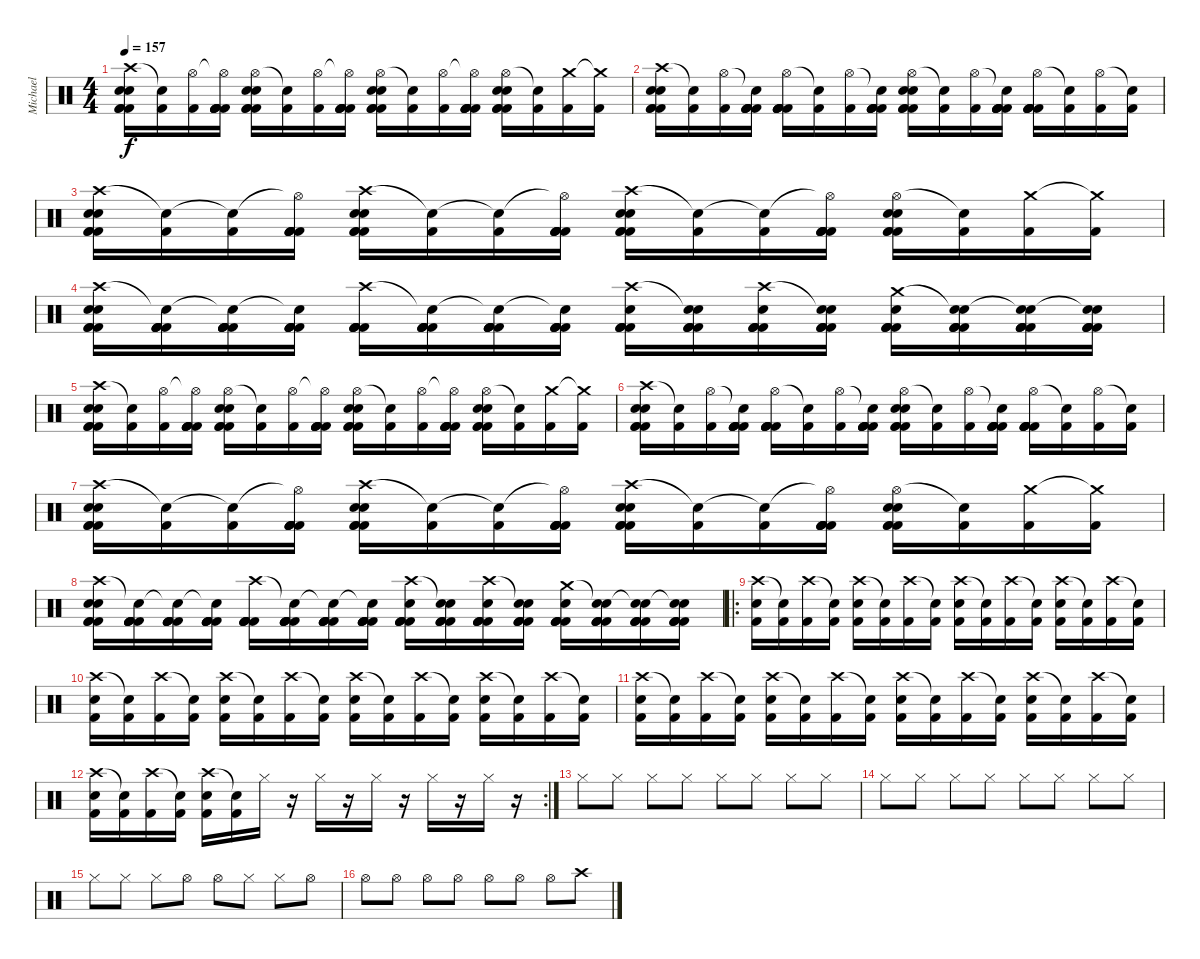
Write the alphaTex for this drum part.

\track ("Michael" "Michael") {instrument percussion}
\staff {score}
\articulation defaults
\ts (4 4)
\tempo 157
\clef neutral
\ks c
("Crash high (hit)" "Kick (hit) 2" "Kick (hit) 2" "Electric Snare (hit)" "Electric Snare (hit)" "Kick (hit) 2").16{dy f} ("Snare (hit)"{t} "Kick (hit) 2").16 ("Hi-Hat (open)" "Kick (hit) 2").16 ("Hi-Hat (open)"{t} "Kick (hit) 2" "Kick (hit) 2" "Kick (hit) 2" "Kick (hit) 2" "Kick (hit) 2").16 ("Hi-Hat (open)" "Kick (hit) 2" "Kick (hit) 2" "Electric Snare (hit)" "Electric Snare (hit)" "Kick (hit) 2").16 ("Snare (hit)"{t} "Kick (hit) 2").16 ("Hi-Hat (open)" "Kick (hit) 2").16 ("Hi-Hat (open)"{t} "Kick (hit) 2" "Kick (hit) 2" "Kick (hit) 2" "Kick (hit) 2" "Kick (hit) 2").16 ("Hi-Hat (open)" "Kick (hit) 2" "Kick (hit) 2" "Electric Snare (hit)" "Electric Snare (hit)" "Kick (hit) 2").16 ("Snare (hit)"{t} "Kick (hit) 2").16 ("Hi-Hat (open)" "Kick (hit) 2").16 ("Hi-Hat (open)"{t} "Kick (hit) 2" "Kick (hit) 2" "Kick (hit) 2" "Kick (hit) 2" "Kick (hit) 2").16 ("Hi-Hat (open)" "Kick (hit) 2" "Kick (hit) 2" "Electric Snare (hit)" "Electric Snare (hit)" "Kick (hit) 2").16 ("Snare (hit)"{t} "Kick (hit) 2").16 ("Crash medium (hit)" "Kick (hit) 2").16 ("Crash medium (hit)"{t} "Kick (hit) 2").16 |
("Crash high (hit)" "Kick (hit) 2" "Kick (hit) 2" "Electric Snare (hit)" "Electric Snare (hit)" "Kick (hit) 2").16 ("Snare (hit)"{t} "Kick (hit) 2").16 ("Hi-Hat (open)" "Kick (hit) 2").16 ("Snare (hit)"{t} "Kick (hit) 2" "Kick (hit) 2" "Kick (hit) 2" "Kick (hit) 2" "Kick (hit) 2").16 ("Hi-Hat (open)" "Kick (hit) 2" "Kick (hit) 2" "Kick (hit) 2" "Kick (hit) 2" "Kick (hit) 2").16 ("Snare (hit)"{t} "Kick (hit) 2").16 ("Hi-Hat (open)" "Kick (hit) 2").16 ("Snare (hit)"{t} "Kick (hit) 2" "Kick (hit) 2" "Kick (hit) 2" "Kick (hit) 2" "Kick (hit) 2").16 ("Hi-Hat (open)" "Kick (hit) 2" "Kick (hit) 2" "Electric Snare (hit)" "Electric Snare (hit)" "Kick (hit) 2").16 ("Snare (hit)"{t} "Kick (hit) 2").16 ("Hi-Hat (open)" "Kick (hit) 2").16 ("Snare (hit)"{t} "Kick (hit) 2" "Kick (hit) 2" "Kick (hit) 2" "Kick (hit) 2" "Kick (hit) 2").16 ("Hi-Hat (open)" "Kick (hit) 2" "Kick (hit) 2" "Kick (hit) 2" "Kick (hit) 2" "Kick (hit) 2").16 ("Snare (hit)"{t} "Kick (hit) 2").16 ("Hi-Hat (open)" "Kick (hit) 2").16 ("Snare (hit)"{t} "Kick (hit) 2").16 |
("Crash high (hit)" "Kick (hit) 2" "Kick (hit) 2" "Electric Snare (hit)" "Electric Snare (hit)" "Kick (hit) 2").16 ("Snare (hit)"{t} "Kick (hit) 2").16 ("Snare (hit)"{t} "Kick (hit) 2").16 ("Hi-Hat (open)"{t} "Kick (hit) 2" "Kick (hit) 2" "Kick (hit) 2" "Kick (hit) 2" "Kick (hit) 2").16 ("Crash high (hit)" "Kick (hit) 2" "Kick (hit) 2" "Electric Snare (hit)" "Electric Snare (hit)" "Kick (hit) 2").16 ("Snare (hit)"{t} "Kick (hit) 2").16 ("Snare (hit)"{t} "Kick (hit) 2").16 ("Hi-Hat (open)"{t} "Kick (hit) 2" "Kick (hit) 2" "Kick (hit) 2" "Kick (hit) 2" "Kick (hit) 2").16 ("Crash high (hit)" "Kick (hit) 2" "Kick (hit) 2" "Electric Snare (hit)" "Electric Snare (hit)" "Kick (hit) 2").16 ("Snare (hit)"{t} "Kick (hit) 2").16 ("Snare (hit)"{t} "Kick (hit) 2").16 ("Hi-Hat (open)"{t} "Kick (hit) 2" "Kick (hit) 2" "Kick (hit) 2" "Kick (hit) 2" "Kick (hit) 2").16 ("Hi-Hat (open)" "Kick (hit) 2" "Kick (hit) 2" "Electric Snare (hit)" "Electric Snare (hit)" "Kick (hit) 2").16 ("Snare (hit)"{t} "Kick (hit) 2").16 ("Crash medium (hit)" "Kick (hit) 2").16 ("Crash medium (hit)"{t} "Kick (hit) 2").16 |
("Crash high (hit)" "Kick (hit) 2" "Kick (hit) 2" "Electric Snare (hit)" "Electric Snare (hit)" "Kick (hit) 2").16 ("Snare (hit)"{t} "Kick (hit) 2" "Kick (hit) 2" "Kick (hit) 2" "Kick (hit) 2" "Kick (hit) 2").16 ("Snare (hit)"{t} "Kick (hit) 2" "Kick (hit) 2" "Kick (hit) 2" "Kick (hit) 2" "Kick (hit) 2").16 ("Snare (hit)"{t} "Kick (hit) 2" "Kick (hit) 2" "Kick (hit) 2" "Kick (hit) 2" "Kick (hit) 2").16 ("Crash high (hit)" "Kick (hit) 2" "Kick (hit) 2" "Kick (hit) 2" "Kick (hit) 2" "Kick (hit) 2").16 ("Snare (hit)"{t} "Kick (hit) 2" "Kick (hit) 2" "Kick (hit) 2" "Kick (hit) 2" "Kick (hit) 2").16 ("Snare (hit)"{t} "Kick (hit) 2" "Kick (hit) 2" "Kick (hit) 2" "Kick (hit) 2" "Kick (hit) 2").16 ("Snare (hit)"{t} "Kick (hit) 2" "Kick (hit) 2" "Kick (hit) 2" "Kick (hit) 2" "Kick (hit) 2").16 ("Crash high (hit)" "Kick (hit) 2" "Kick (hit) 2" "Kick (hit) 2" "Kick (hit) 2" "Electric Snare (hit)").16 ("Snare (hit)"{t} "Kick (hit) 2" "Kick (hit) 2" "Kick (hit) 2" "Kick (hit) 2" "Electric Snare (hit)").16 ("Crash high (hit)" "Kick (hit) 2" "Kick (hit) 2" "Kick (hit) 2" "Kick (hit) 2" "Electric Snare (hit)").16 ("Snare (hit)"{t} "Kick (hit) 2" "Kick (hit) 2" "Kick (hit) 2" "Kick (hit) 2" "Electric Snare (hit)").16 ("Crash medium (hit)" "Kick (hit) 2" "Kick (hit) 2" "Kick (hit) 2" "Kick (hit) 2" "Electric Snare (hit)").16 ("Snare (hit)"{t} "Kick (hit) 2" "Kick (hit) 2" "Kick (hit) 2" "Kick (hit) 2" "Electric Snare (hit)").16 ("Snare (hit)"{t} "Kick (hit) 2" "Kick (hit) 2" "Kick (hit) 2" "Kick (hit) 2" "Electric Snare (hit)").16 ("Snare (hit)"{t} "Kick (hit) 2" "Kick (hit) 2" "Kick (hit) 2" "Kick (hit) 2" "Electric Snare (hit)").16 |
("Crash high (hit)" "Kick (hit) 2" "Kick (hit) 2" "Electric Snare (hit)" "Electric Snare (hit)" "Kick (hit) 2").16 ("Snare (hit)"{t} "Kick (hit) 2").16 ("Hi-Hat (open)" "Kick (hit) 2").16 ("Hi-Hat (open)"{t} "Kick (hit) 2" "Kick (hit) 2" "Kick (hit) 2" "Kick (hit) 2" "Kick (hit) 2").16 ("Hi-Hat (open)" "Kick (hit) 2" "Kick (hit) 2" "Electric Snare (hit)" "Electric Snare (hit)" "Kick (hit) 2").16 ("Snare (hit)"{t} "Kick (hit) 2").16 ("Hi-Hat (open)" "Kick (hit) 2").16 ("Hi-Hat (open)"{t} "Kick (hit) 2" "Kick (hit) 2" "Kick (hit) 2" "Kick (hit) 2" "Kick (hit) 2").16 ("Hi-Hat (open)" "Kick (hit) 2" "Kick (hit) 2" "Electric Snare (hit)" "Electric Snare (hit)" "Kick (hit) 2").16 ("Snare (hit)"{t} "Kick (hit) 2").16 ("Hi-Hat (open)" "Kick (hit) 2").16 ("Hi-Hat (open)"{t} "Kick (hit) 2" "Kick (hit) 2" "Kick (hit) 2" "Kick (hit) 2" "Kick (hit) 2").16 ("Hi-Hat (open)" "Kick (hit) 2" "Kick (hit) 2" "Electric Snare (hit)" "Electric Snare (hit)" "Kick (hit) 2").16 ("Snare (hit)"{t} "Kick (hit) 2").16 ("Crash medium (hit)" "Kick (hit) 2").16 ("Crash medium (hit)"{t} "Kick (hit) 2").16 |
("Crash high (hit)" "Kick (hit) 2" "Kick (hit) 2" "Electric Snare (hit)" "Electric Snare (hit)" "Kick (hit) 2").16 ("Snare (hit)"{t} "Kick (hit) 2").16 ("Hi-Hat (open)" "Kick (hit) 2").16 ("Snare (hit)"{t} "Kick (hit) 2" "Kick (hit) 2" "Kick (hit) 2" "Kick (hit) 2" "Kick (hit) 2").16 ("Hi-Hat (open)" "Kick (hit) 2" "Kick (hit) 2" "Kick (hit) 2" "Kick (hit) 2" "Kick (hit) 2").16 ("Snare (hit)"{t} "Kick (hit) 2").16 ("Hi-Hat (open)" "Kick (hit) 2").16 ("Snare (hit)"{t} "Kick (hit) 2" "Kick (hit) 2" "Kick (hit) 2" "Kick (hit) 2" "Kick (hit) 2").16 ("Hi-Hat (open)" "Kick (hit) 2" "Kick (hit) 2" "Electric Snare (hit)" "Electric Snare (hit)" "Kick (hit) 2").16 ("Snare (hit)"{t} "Kick (hit) 2").16 ("Hi-Hat (open)" "Kick (hit) 2").16 ("Snare (hit)"{t} "Kick (hit) 2" "Kick (hit) 2" "Kick (hit) 2" "Kick (hit) 2" "Kick (hit) 2").16 ("Hi-Hat (open)" "Kick (hit) 2" "Kick (hit) 2" "Kick (hit) 2" "Kick (hit) 2" "Kick (hit) 2").16 ("Snare (hit)"{t} "Kick (hit) 2").16 ("Hi-Hat (open)" "Kick (hit) 2").16 ("Snare (hit)"{t} "Kick (hit) 2").16 |
("Crash high (hit)" "Kick (hit) 2" "Kick (hit) 2" "Electric Snare (hit)" "Electric Snare (hit)" "Kick (hit) 2").16 ("Snare (hit)"{t} "Kick (hit) 2").16 ("Snare (hit)"{t} "Kick (hit) 2").16 ("Hi-Hat (open)"{t} "Kick (hit) 2" "Kick (hit) 2" "Kick (hit) 2" "Kick (hit) 2" "Kick (hit) 2").16 ("Crash high (hit)" "Kick (hit) 2" "Kick (hit) 2" "Electric Snare (hit)" "Electric Snare (hit)" "Kick (hit) 2").16 ("Snare (hit)"{t} "Kick (hit) 2").16 ("Snare (hit)"{t} "Kick (hit) 2").16 ("Hi-Hat (open)"{t} "Kick (hit) 2" "Kick (hit) 2" "Kick (hit) 2" "Kick (hit) 2" "Kick (hit) 2").16 ("Crash high (hit)" "Kick (hit) 2" "Kick (hit) 2" "Electric Snare (hit)" "Electric Snare (hit)" "Kick (hit) 2").16 ("Snare (hit)"{t} "Kick (hit) 2").16 ("Snare (hit)"{t} "Kick (hit) 2").16 ("Hi-Hat (open)"{t} "Kick (hit) 2" "Kick (hit) 2" "Kick (hit) 2" "Kick (hit) 2" "Kick (hit) 2").16 ("Hi-Hat (open)" "Kick (hit) 2" "Kick (hit) 2" "Electric Snare (hit)" "Electric Snare (hit)" "Kick (hit) 2").16 ("Snare (hit)"{t} "Kick (hit) 2").16 ("Crash medium (hit)" "Kick (hit) 2").16 ("Crash medium (hit)"{t} "Kick (hit) 2").16 |
("Crash high (hit)" "Kick (hit) 2" "Kick (hit) 2" "Electric Snare (hit)" "Electric Snare (hit)" "Kick (hit) 2").16 ("Snare (hit)"{t} "Kick (hit) 2" "Kick (hit) 2" "Kick (hit) 2" "Kick (hit) 2" "Kick (hit) 2").16 ("Snare (hit)"{t} "Kick (hit) 2" "Kick (hit) 2" "Kick (hit) 2" "Kick (hit) 2" "Kick (hit) 2").16 ("Snare (hit)"{t} "Kick (hit) 2" "Kick (hit) 2" "Kick (hit) 2" "Kick (hit) 2" "Kick (hit) 2").16 ("Crash high (hit)" "Kick (hit) 2" "Kick (hit) 2" "Kick (hit) 2" "Kick (hit) 2" "Kick (hit) 2").16 ("Snare (hit)"{t} "Kick (hit) 2" "Kick (hit) 2" "Kick (hit) 2" "Kick (hit) 2" "Kick (hit) 2").16 ("Snare (hit)"{t} "Kick (hit) 2" "Kick (hit) 2" "Kick (hit) 2" "Kick (hit) 2" "Kick (hit) 2").16 ("Snare (hit)"{t} "Kick (hit) 2" "Kick (hit) 2" "Kick (hit) 2" "Kick (hit) 2" "Kick (hit) 2").16 ("Crash high (hit)" "Kick (hit) 2" "Kick (hit) 2" "Kick (hit) 2" "Kick (hit) 2" "Electric Snare (hit)").16 ("Snare (hit)"{t} "Kick (hit) 2" "Kick (hit) 2" "Kick (hit) 2" "Kick (hit) 2" "Electric Snare (hit)").16 ("Crash high (hit)" "Kick (hit) 2" "Kick (hit) 2" "Kick (hit) 2" "Kick (hit) 2" "Electric Snare (hit)").16 ("Snare (hit)"{t} "Kick (hit) 2" "Kick (hit) 2" "Kick (hit) 2" "Kick (hit) 2" "Electric Snare (hit)").16 ("Crash medium (hit)" "Kick (hit) 2" "Kick (hit) 2" "Kick (hit) 2" "Kick (hit) 2" "Electric Snare (hit)").16 ("Snare (hit)"{t} "Kick (hit) 2" "Kick (hit) 2" "Kick (hit) 2" "Kick (hit) 2" "Electric Snare (hit)").16 ("Snare (hit)"{t} "Kick (hit) 2" "Kick (hit) 2" "Kick (hit) 2" "Kick (hit) 2" "Electric Snare (hit)").16 ("Snare (hit)"{t} "Kick (hit) 2" "Kick (hit) 2" "Kick (hit) 2" "Kick (hit) 2" "Electric Snare (hit)").16 |
\ro
("Crash high (hit)" "Electric Snare (hit)" "Kick (hit) 2").16 ("Snare (hit)"{t} "Kick (hit) 2").16 ("Crash high (hit)" "Kick (hit) 2").16 ("Snare (hit)"{t} "Kick (hit) 2").16 ("Crash high (hit)" "Electric Snare (hit)" "Kick (hit) 2").16 ("Snare (hit)"{t} "Kick (hit) 2").16 ("Crash high (hit)" "Kick (hit) 2").16 ("Snare (hit)"{t} "Kick (hit) 2").16 ("Crash high (hit)" "Electric Snare (hit)" "Kick (hit) 2").16 ("Snare (hit)"{t} "Kick (hit) 2").16 ("Crash high (hit)" "Kick (hit) 2").16 ("Snare (hit)"{t} "Kick (hit) 2").16 ("Crash high (hit)" "Electric Snare (hit)" "Kick (hit) 2").16 ("Snare (hit)"{t} "Kick (hit) 2").16 ("Crash high (hit)" "Kick (hit) 2").16 ("Snare (hit)"{t} "Kick (hit) 2").16 |
("Crash high (hit)" "Electric Snare (hit)" "Kick (hit) 2").16 ("Snare (hit)"{t} "Kick (hit) 2").16 ("Crash high (hit)" "Kick (hit) 2").16 ("Snare (hit)"{t} "Kick (hit) 2").16 ("Crash high (hit)" "Electric Snare (hit)" "Kick (hit) 2").16 ("Snare (hit)"{t} "Kick (hit) 2").16 ("Crash high (hit)" "Kick (hit) 2").16 ("Snare (hit)"{t} "Kick (hit) 2").16 ("Crash high (hit)" "Electric Snare (hit)" "Kick (hit) 2").16 ("Snare (hit)"{t} "Kick (hit) 2").16 ("Crash high (hit)" "Kick (hit) 2").16 ("Snare (hit)"{t} "Kick (hit) 2").16 ("Crash high (hit)" "Electric Snare (hit)" "Kick (hit) 2").16 ("Snare (hit)"{t} "Kick (hit) 2").16 ("Crash high (hit)" "Kick (hit) 2").16 ("Snare (hit)"{t} "Kick (hit) 2").16 |
("Crash high (hit)" "Electric Snare (hit)" "Kick (hit) 2").16 ("Snare (hit)"{t} "Kick (hit) 2").16 ("Crash high (hit)" "Kick (hit) 2").16 ("Snare (hit)"{t} "Kick (hit) 2").16 ("Crash high (hit)" "Electric Snare (hit)" "Kick (hit) 2").16 ("Snare (hit)"{t} "Kick (hit) 2").16 ("Crash high (hit)" "Kick (hit) 2").16 ("Snare (hit)"{t} "Kick (hit) 2").16 ("Crash high (hit)" "Electric Snare (hit)" "Kick (hit) 2").16 ("Snare (hit)"{t} "Kick (hit) 2").16 ("Crash high (hit)" "Kick (hit) 2").16 ("Snare (hit)"{t} "Kick (hit) 2").16 ("Crash high (hit)" "Electric Snare (hit)" "Kick (hit) 2").16 ("Snare (hit)"{t} "Kick (hit) 2").16 ("Crash high (hit)" "Kick (hit) 2").16 ("Snare (hit)"{t} "Kick (hit) 2").16 |
\rc 2
("Crash high (hit)" "Electric Snare (hit)" "Kick (hit) 2").16 ("Snare (hit)"{t} "Kick (hit) 2").16 ("Crash high (hit)" "Kick (hit) 2").16 ("Snare (hit)"{t} "Kick (hit) 2").16 ("Crash high (hit)" "Electric Snare (hit)" "Kick (hit) 2").16 ("Snare (hit)"{t} "Kick (hit) 2").16 "Hi-Hat (closed)".16 r.16 "Hi-Hat (closed)".16 r.16 "Hi-Hat (closed)".16 r.16 "Hi-Hat (closed)".16 r.16 "Hi-Hat (closed)".16 r.16 |
"Hi-Hat (closed)".8 "Hi-Hat (closed)".8 "Hi-Hat (closed)".8 "Hi-Hat (closed)".8 "Hi-Hat (closed)".8 "Hi-Hat (closed)".8 "Hi-Hat (closed)".8 "Hi-Hat (closed)".8 |
"Hi-Hat (closed)".8 "Hi-Hat (closed)".8 "Hi-Hat (closed)".8 "Hi-Hat (closed)".8 "Hi-Hat (closed)".8 "Hi-Hat (closed)".8 "Hi-Hat (closed)".8 "Hi-Hat (closed)".8 |
"Hi-Hat (closed)".8 "Hi-Hat (closed)".8 "Hi-Hat (closed)".8 "Hi-Hat (open)".8 "Hi-Hat (open)".8 "Hi-Hat (closed)".8 "Hi-Hat (closed)".8 "Hi-Hat (open)".8 |
"Hi-Hat (open)".8 "Hi-Hat (open)".8 "Hi-Hat (open)".8 "Hi-Hat (open)".8 "Hi-Hat (open)".8 "Hi-Hat (open)".8 "Hi-Hat (open)".8 "Crash high (hit)".8
